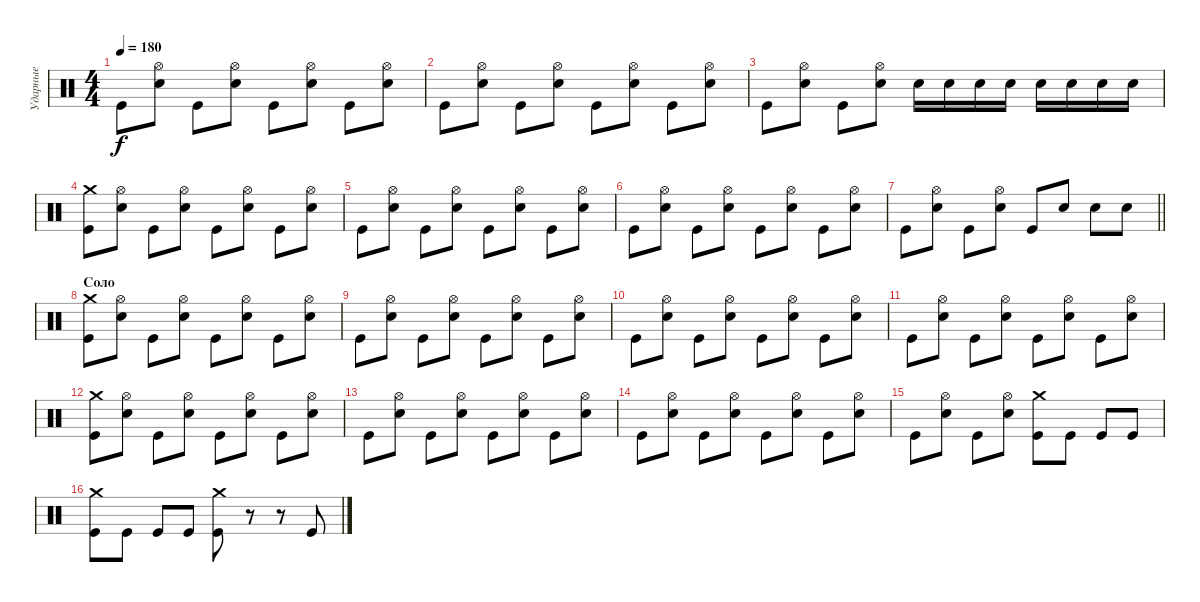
\track ("Ударные" "Ударные") {instrument percussion}
\staff {score}
\articulation defaults
\ts (4 4)
\tempo 180
\clef neutral
\ks c "Kick (hit)".8{dy f}
("Hi-Hat (open)" "Electric Snare (hit)").8 "Kick (hit)".8 ("Hi-Hat (open)" "Electric Snare (hit)").8 "Kick (hit)".8 ("Hi-Hat (open)" "Electric Snare (hit)").8 "Kick (hit)".8 ("Hi-Hat (open)" "Electric Snare (hit)").8 |
"Kick (hit)".8 ("Hi-Hat (open)" "Electric Snare (hit)").8 "Kick (hit)".8 ("Hi-Hat (open)" "Electric Snare (hit)").8 "Kick (hit)".8 ("Hi-Hat (open)" "Electric Snare (hit)").8 "Kick (hit)".8 ("Hi-Hat (open)" "Electric Snare (hit)").8 |
"Kick (hit)".8 ("Hi-Hat (open)" "Electric Snare (hit)").8 "Kick (hit)".8 ("Hi-Hat (open)" "Electric Snare (hit)").8 "Electric Snare (hit)".16 "Electric Snare (hit)".16 "Electric Snare (hit)".16 "Electric Snare (hit)".16 "Electric Snare (hit)".16 "Electric Snare (hit)".16 "Electric Snare (hit)".16 "Electric Snare (hit)".16 |
("Crash medium (hit)" "Kick (hit)").8 ("Hi-Hat (open)" "Electric Snare (hit)").8 "Kick (hit)".8 ("Hi-Hat (open)" "Electric Snare (hit)").8 "Kick (hit)".8 ("Hi-Hat (open)" "Electric Snare (hit)").8 "Kick (hit)".8 ("Hi-Hat (open)" "Electric Snare (hit)").8 |
"Kick (hit)".8 ("Hi-Hat (open)" "Electric Snare (hit)").8 "Kick (hit)".8 ("Hi-Hat (open)" "Electric Snare (hit)").8 "Kick (hit)".8 ("Hi-Hat (open)" "Electric Snare (hit)").8 "Kick (hit)".8 ("Hi-Hat (open)" "Electric Snare (hit)").8 |
"Kick (hit)".8 ("Hi-Hat (open)" "Electric Snare (hit)").8 "Kick (hit)".8 ("Hi-Hat (open)" "Electric Snare (hit)").8 "Kick (hit)".8 ("Hi-Hat (open)" "Electric Snare (hit)").8 "Kick (hit)".8 ("Hi-Hat (open)" "Electric Snare (hit)").8 |
\barLineRight lightlight "Kick (hit)".8
("Hi-Hat (open)" "Electric Snare (hit)").8 "Kick (hit)".8 ("Hi-Hat (open)" "Electric Snare (hit)").8 "Kick (hit)".8 "Electric Snare (hit)".8 "Electric Snare (hit)".8 "Electric Snare (hit)".8 |
\section ("" "Соло")
("Crash medium (hit)" "Kick (hit)").8 ("Hi-Hat (open)" "Electric Snare (hit)").8 "Kick (hit)".8 ("Hi-Hat (open)" "Electric Snare (hit)").8 "Kick (hit)".8 ("Hi-Hat (open)" "Electric Snare (hit)").8 "Kick (hit)".8 ("Hi-Hat (open)" "Electric Snare (hit)").8 |
"Kick (hit)".8 ("Hi-Hat (open)" "Electric Snare (hit)").8 "Kick (hit)".8 ("Hi-Hat (open)" "Electric Snare (hit)").8 "Kick (hit)".8 ("Hi-Hat (open)" "Electric Snare (hit)").8 "Kick (hit)".8 ("Hi-Hat (open)" "Electric Snare (hit)").8 |
"Kick (hit)".8 ("Hi-Hat (open)" "Electric Snare (hit)").8 "Kick (hit)".8 ("Hi-Hat (open)" "Electric Snare (hit)").8 "Kick (hit)".8 ("Hi-Hat (open)" "Electric Snare (hit)").8 "Kick (hit)".8 ("Hi-Hat (open)" "Electric Snare (hit)").8 |
"Kick (hit)".8 ("Hi-Hat (open)" "Electric Snare (hit)").8 "Kick (hit)".8 ("Hi-Hat (open)" "Electric Snare (hit)").8 "Kick (hit)".8 ("Hi-Hat (open)" "Electric Snare (hit)").8 "Kick (hit)".8 ("Hi-Hat (open)" "Electric Snare (hit)").8 |
("Crash medium (hit)" "Kick (hit)").8 ("Hi-Hat (open)" "Electric Snare (hit)").8 "Kick (hit)".8 ("Hi-Hat (open)" "Electric Snare (hit)").8 "Kick (hit)".8 ("Hi-Hat (open)" "Electric Snare (hit)").8 "Kick (hit)".8 ("Hi-Hat (open)" "Electric Snare (hit)").8 |
"Kick (hit)".8 ("Hi-Hat (open)" "Electric Snare (hit)").8 "Kick (hit)".8 ("Hi-Hat (open)" "Electric Snare (hit)").8 "Kick (hit)".8 ("Hi-Hat (open)" "Electric Snare (hit)").8 "Kick (hit)".8 ("Hi-Hat (open)" "Electric Snare (hit)").8 |
"Kick (hit)".8 ("Hi-Hat (open)" "Electric Snare (hit)").8 "Kick (hit)".8 ("Hi-Hat (open)" "Electric Snare (hit)").8 "Kick (hit)".8 ("Hi-Hat (open)" "Electric Snare (hit)").8 "Kick (hit)".8 ("Hi-Hat (open)" "Electric Snare (hit)").8 |
"Kick (hit)".8 ("Hi-Hat (open)" "Electric Snare (hit)").8 "Kick (hit)".8 ("Hi-Hat (open)" "Electric Snare (hit)").8 ("Crash medium (hit)" "Kick (hit)").8 "Kick (hit)".8 "Kick (hit)".8 "Kick (hit)".8 |
("Crash medium (hit)" "Kick (hit)").8 "Kick (hit)".8 "Kick (hit)".8 "Kick (hit)".8 ("Crash medium (hit)" "Kick (hit)").8 r.8 r.8 "Kick (hit)".8
